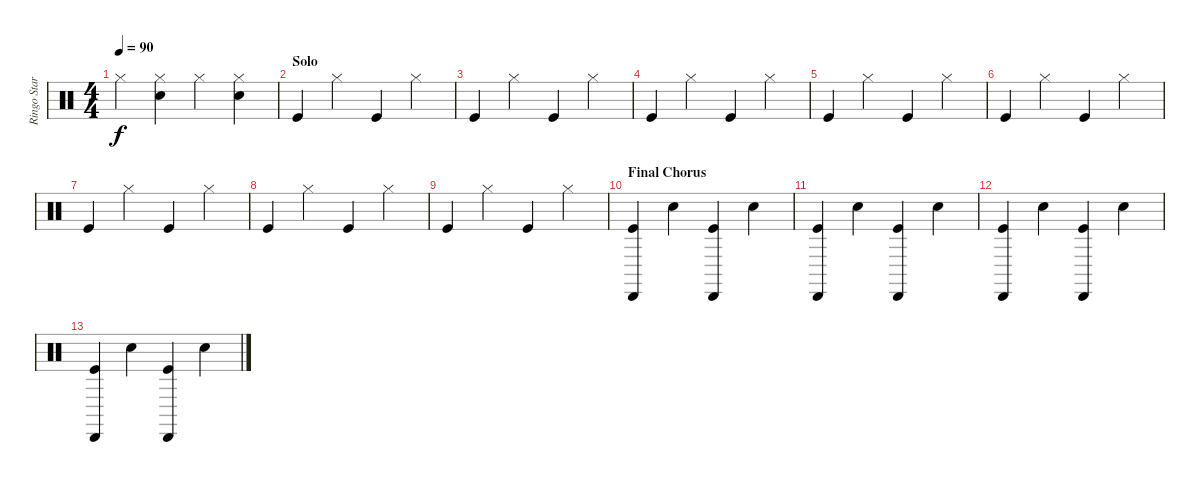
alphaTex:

\track ("Ringo Starr" "Ringo Star") {instrument percussion}
\staff {score}
\articulation defaults
\ts (4 4)
\tempo 90
\clef neutral
\ks c "Hi-Hat (closed)".4{dy f}
("Hi-Hat (closed)" "Snare (hit) 2").4 "Hi-Hat (closed)".4 ("Hi-Hat (closed)" "Snare (hit) 2").4 |
\section ("" "Solo")
"Kick (hit)".4 "Hi-Hat (closed)".4 "Kick (hit)".4 "Hi-Hat (closed)".4 |
"Kick (hit)".4 "Hi-Hat (closed)".4 "Kick (hit)".4 "Hi-Hat (closed)".4 |
"Kick (hit)".4 "Hi-Hat (closed)".4 "Kick (hit)".4 "Hi-Hat (closed)".4 |
"Kick (hit)".4 "Hi-Hat (closed)".4 "Kick (hit)".4 "Hi-Hat (closed)".4 |
"Kick (hit)".4 "Hi-Hat (closed)".4 "Kick (hit)".4 "Hi-Hat (closed)".4 |
"Kick (hit)".4 "Hi-Hat (closed)".4 "Kick (hit)".4 "Hi-Hat (closed)".4 |
"Kick (hit)".4 "Hi-Hat (closed)".4 "Kick (hit)".4 "Hi-Hat (closed)".4 |
"Kick (hit)".4 "Hi-Hat (closed)".4 "Kick (hit)".4 "Hi-Hat (closed)".4 |
\section ("" "Final Chorus")
("Cabasa (hit)" "Kick (hit)").4 "Snare (hit) 2".4 ("Cabasa (hit)" "Kick (hit)").4 "Snare (hit) 2".4 |
("Cabasa (hit)" "Kick (hit)").4 "Snare (hit) 2".4 ("Cabasa (hit)" "Kick (hit)").4 "Snare (hit) 2".4 |
("Cabasa (hit)" "Kick (hit)").4 "Snare (hit) 2".4 ("Cabasa (hit)" "Kick (hit)").4 "Snare (hit) 2".4 |
("Cabasa (hit)" "Kick (hit)").4 "Snare (hit) 2".4 ("Cabasa (hit)" "Kick (hit)").4 "Snare (hit) 2".4
